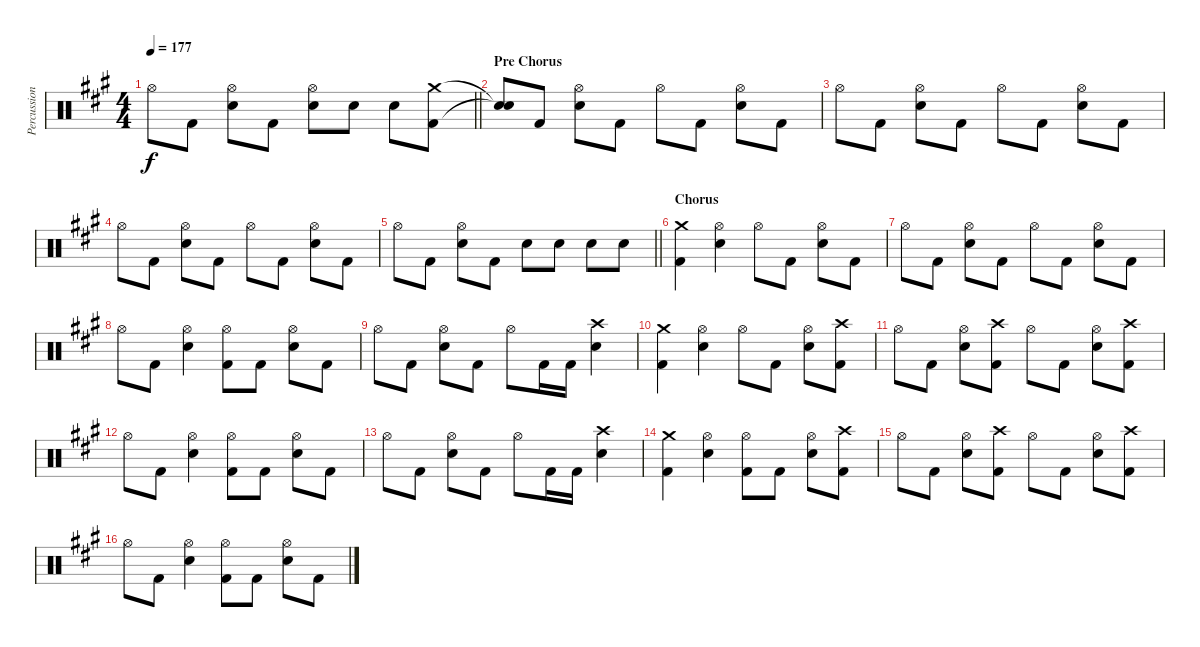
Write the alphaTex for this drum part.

\track ("Percussion" "Percussion") {instrument percussion}
\staff {score}
\articulation defaults
\ts (4 4)
\tempo 177
\clef neutral
\barLineRight lightlight
\ks a "Hi-Hat (open)".8{dy f} "Kick (hit) 2".8
("Hi-Hat (open)" "Snare (hit) 2").8 "Kick (hit) 2".8 ("Hi-Hat (open)" "Snare (hit) 2").8 "Snare (hit) 2".8 "Snare (hit) 2".8 ("Kick (hit) 2" "Crash medium (hit)").8 |
\section ("" "Pre Chorus")
("Snare (hit)"{t} "Snare (hit)"{t}).8 "Kick (hit) 2".8 ("Hi-Hat (open)" "Snare (hit) 2").8 "Kick (hit) 2".8 "Hi-Hat (open)".8 "Kick (hit) 2".8 ("Hi-Hat (open)" "Snare (hit) 2").8 "Kick (hit) 2".8 |
"Hi-Hat (open)".8 "Kick (hit) 2".8 ("Hi-Hat (open)" "Snare (hit) 2").8 "Kick (hit) 2".8 "Hi-Hat (open)".8 "Kick (hit) 2".8 ("Hi-Hat (open)" "Snare (hit) 2").8 "Kick (hit) 2".8 |
"Hi-Hat (open)".8 "Kick (hit) 2".8 ("Hi-Hat (open)" "Snare (hit) 2").8 "Kick (hit) 2".8 "Hi-Hat (open)".8 "Kick (hit) 2".8 ("Hi-Hat (open)" "Snare (hit) 2").8 "Kick (hit) 2".8 |
\barLineRight lightlight "Hi-Hat (open)".8 "Kick (hit) 2".8
("Hi-Hat (open)" "Snare (hit) 2").8 "Kick (hit) 2".8 "Snare (hit) 2".8 "Snare (hit) 2".8 "Snare (hit) 2".8 "Snare (hit) 2".8 |
\section ("" "Chorus")
("Kick (hit) 2" "Crash medium (hit)").4 ("Hi-Hat (open)" "Snare (hit) 2").4 "Hi-Hat (open)".8 "Kick (hit) 2".8 ("Hi-Hat (open)" "Snare (hit) 2").8 "Kick (hit) 2".8 |
"Hi-Hat (open)".8 "Kick (hit) 2".8 ("Hi-Hat (open)" "Snare (hit) 2").8 "Kick (hit) 2".8 "Hi-Hat (open)".8 "Kick (hit) 2".8 ("Hi-Hat (open)" "Snare (hit) 2").8 "Kick (hit) 2".8 |
"Hi-Hat (open)".8 "Kick (hit) 2".8 ("Hi-Hat (open)" "Snare (hit) 2").4 ("Hi-Hat (open)" "Kick (hit) 2").8 "Kick (hit) 2".8 ("Hi-Hat (open)" "Snare (hit) 2").8 "Kick (hit) 2".8 |
"Hi-Hat (open)".8 "Kick (hit) 2".8 ("Hi-Hat (open)" "Snare (hit) 2").8 "Kick (hit) 2".8 "Hi-Hat (open)".8 "Kick (hit) 2".16 "Kick (hit) 2".16 ("Snare (hit) 2" "Crash high (hit)").4 |
("Kick (hit) 2" "Crash medium (hit)").4 ("Hi-Hat (open)" "Snare (hit) 2").4 "Hi-Hat (open)".8 "Kick (hit) 2".8 ("Hi-Hat (open)" "Snare (hit) 2").8 ("Kick (hit) 2" "Crash high (hit)").8 |
"Hi-Hat (open)".8 "Kick (hit) 2".8 ("Hi-Hat (open)" "Snare (hit) 2").8 ("Kick (hit) 2" "Crash high (hit)").8 "Hi-Hat (open)".8 "Kick (hit) 2".8 ("Hi-Hat (open)" "Snare (hit) 2").8 ("Kick (hit) 2" "Crash high (hit)").8 |
"Hi-Hat (open)".8 "Kick (hit) 2".8 ("Hi-Hat (open)" "Snare (hit) 2").4 ("Hi-Hat (open)" "Kick (hit) 2").8 "Kick (hit) 2".8 ("Hi-Hat (open)" "Snare (hit) 2").8 "Kick (hit) 2".8 |
"Hi-Hat (open)".8 "Kick (hit) 2".8 ("Hi-Hat (open)" "Snare (hit) 2").8 "Kick (hit) 2".8 "Hi-Hat (open)".8 "Kick (hit) 2".16 "Kick (hit) 2".16 ("Snare (hit) 2" "Crash high (hit)").4 |
("Kick (hit) 2" "Crash medium (hit)").4 ("Hi-Hat (open)" "Snare (hit) 2").4 ("Hi-Hat (open)" "Kick (hit) 2").8 "Kick (hit) 2".8 ("Hi-Hat (open)" "Snare (hit) 2").8 ("Kick (hit) 2" "Crash high (hit)").8 |
"Hi-Hat (open)".8 "Kick (hit) 2".8 ("Hi-Hat (open)" "Snare (hit) 2").8 ("Kick (hit) 2" "Crash high (hit)").8 "Hi-Hat (open)".8 "Kick (hit) 2".8 ("Hi-Hat (open)" "Snare (hit) 2").8 ("Kick (hit) 2" "Crash high (hit)").8 |
"Hi-Hat (open)".8 "Kick (hit) 2".8 ("Hi-Hat (open)" "Snare (hit) 2").4 ("Hi-Hat (open)" "Kick (hit) 2").8 "Kick (hit) 2".8 ("Hi-Hat (open)" "Snare (hit) 2").8 "Kick (hit) 2".8
